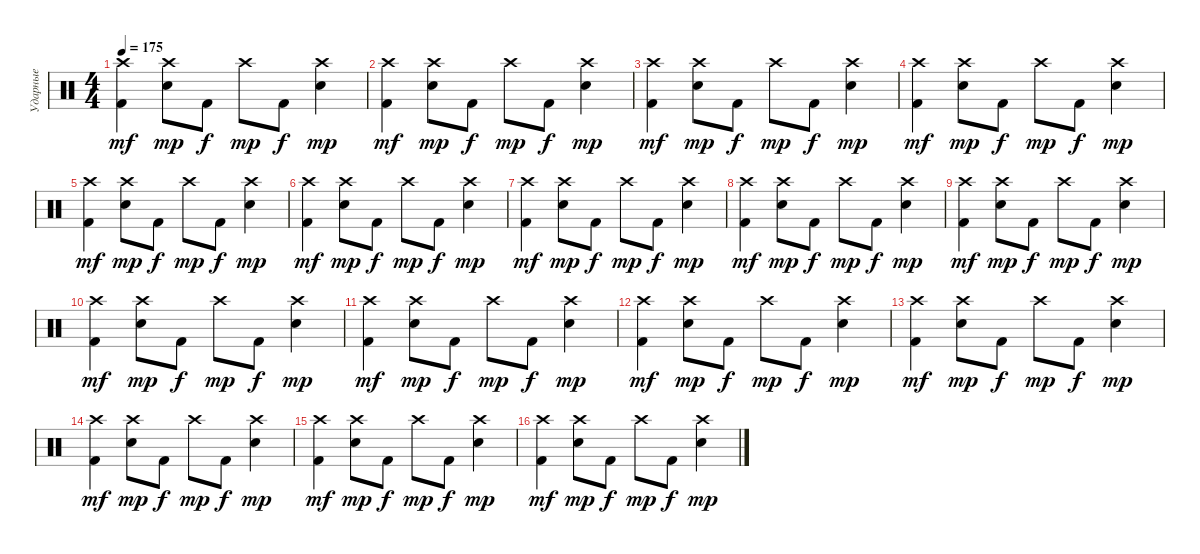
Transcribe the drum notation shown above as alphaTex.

\track ("Ударные" "Ударные") {instrument percussion}
\staff {score}
\articulation defaults
\ts (4 4)
\tempo 175
\clef neutral
\ks c
("Crash high (hit)" "Kick (hit) 2").4{dy mf} ("Crash high (hit)" "Electric Snare (hit)").8{dy mp} "Kick (hit) 2".8{dy f} "Crash high (hit)".8{dy mp} "Kick (hit) 2".8{dy f} ("Crash high (hit)" "Electric Snare (hit)").4{dy mp} |
("Crash high (hit)" "Kick (hit) 2").4{dy mf} ("Crash high (hit)" "Electric Snare (hit)").8{dy mp} "Kick (hit) 2".8{dy f} "Crash high (hit)".8{dy mp} "Kick (hit) 2".8{dy f} ("Crash high (hit)" "Electric Snare (hit)").4{dy mp} |
("Crash high (hit)" "Kick (hit) 2").4{dy mf} ("Crash high (hit)" "Electric Snare (hit)").8{dy mp} "Kick (hit) 2".8{dy f} "Crash high (hit)".8{dy mp} "Kick (hit) 2".8{dy f} ("Crash high (hit)" "Electric Snare (hit)").4{dy mp} |
("Crash high (hit)" "Kick (hit) 2").4{dy mf} ("Crash high (hit)" "Electric Snare (hit)").8{dy mp} "Kick (hit) 2".8{dy f} "Crash high (hit)".8{dy mp} "Kick (hit) 2".8{dy f} ("Crash high (hit)" "Electric Snare (hit)").4{dy mp} |
("Crash high (hit)" "Kick (hit) 2").4{dy mf} ("Crash high (hit)" "Electric Snare (hit)").8{dy mp} "Kick (hit) 2".8{dy f} "Crash high (hit)".8{dy mp} "Kick (hit) 2".8{dy f} ("Crash high (hit)" "Electric Snare (hit)").4{dy mp} |
("Crash high (hit)" "Kick (hit) 2").4{dy mf} ("Crash high (hit)" "Electric Snare (hit)").8{dy mp} "Kick (hit) 2".8{dy f} "Crash high (hit)".8{dy mp} "Kick (hit) 2".8{dy f} ("Crash high (hit)" "Electric Snare (hit)").4{dy mp} |
("Crash high (hit)" "Kick (hit) 2").4{dy mf} ("Crash high (hit)" "Electric Snare (hit)").8{dy mp} "Kick (hit) 2".8{dy f} "Crash high (hit)".8{dy mp} "Kick (hit) 2".8{dy f} ("Crash high (hit)" "Electric Snare (hit)").4{dy mp} |
("Crash high (hit)" "Kick (hit) 2").4{dy mf} ("Crash high (hit)" "Electric Snare (hit)").8{dy mp} "Kick (hit) 2".8{dy f} "Crash high (hit)".8{dy mp} "Kick (hit) 2".8{dy f} ("Crash high (hit)" "Electric Snare (hit)").4{dy mp} |
("Crash high (hit)" "Kick (hit) 2").4{dy mf} ("Crash high (hit)" "Electric Snare (hit)").8{dy mp} "Kick (hit) 2".8{dy f} "Crash high (hit)".8{dy mp} "Kick (hit) 2".8{dy f} ("Crash high (hit)" "Electric Snare (hit)").4{dy mp} |
("Crash high (hit)" "Kick (hit) 2").4{dy mf} ("Crash high (hit)" "Electric Snare (hit)").8{dy mp} "Kick (hit) 2".8{dy f} "Crash high (hit)".8{dy mp} "Kick (hit) 2".8{dy f} ("Crash high (hit)" "Electric Snare (hit)").4{dy mp} |
("Crash high (hit)" "Kick (hit) 2").4{dy mf} ("Crash high (hit)" "Electric Snare (hit)").8{dy mp} "Kick (hit) 2".8{dy f} "Crash high (hit)".8{dy mp} "Kick (hit) 2".8{dy f} ("Crash high (hit)" "Electric Snare (hit)").4{dy mp} |
("Crash high (hit)" "Kick (hit) 2").4{dy mf} ("Crash high (hit)" "Electric Snare (hit)").8{dy mp} "Kick (hit) 2".8{dy f} "Crash high (hit)".8{dy mp} "Kick (hit) 2".8{dy f} ("Crash high (hit)" "Electric Snare (hit)").4{dy mp} |
("Crash high (hit)" "Kick (hit) 2").4{dy mf} ("Crash high (hit)" "Electric Snare (hit)").8{dy mp} "Kick (hit) 2".8{dy f} "Crash high (hit)".8{dy mp} "Kick (hit) 2".8{dy f} ("Crash high (hit)" "Electric Snare (hit)").4{dy mp} |
("Crash high (hit)" "Kick (hit) 2").4{dy mf} ("Crash high (hit)" "Electric Snare (hit)").8{dy mp} "Kick (hit) 2".8{dy f} "Crash high (hit)".8{dy mp} "Kick (hit) 2".8{dy f} ("Crash high (hit)" "Electric Snare (hit)").4{dy mp} |
("Crash high (hit)" "Kick (hit) 2").4{dy mf} ("Crash high (hit)" "Electric Snare (hit)").8{dy mp} "Kick (hit) 2".8{dy f} "Crash high (hit)".8{dy mp} "Kick (hit) 2".8{dy f} ("Crash high (hit)" "Electric Snare (hit)").4{dy mp} |
("Crash high (hit)" "Kick (hit) 2").4{dy mf} ("Crash high (hit)" "Electric Snare (hit)").8{dy mp} "Kick (hit) 2".8{dy f} "Crash high (hit)".8{dy mp} "Kick (hit) 2".8{dy f} ("Crash high (hit)" "Electric Snare (hit)").4{dy mp}
